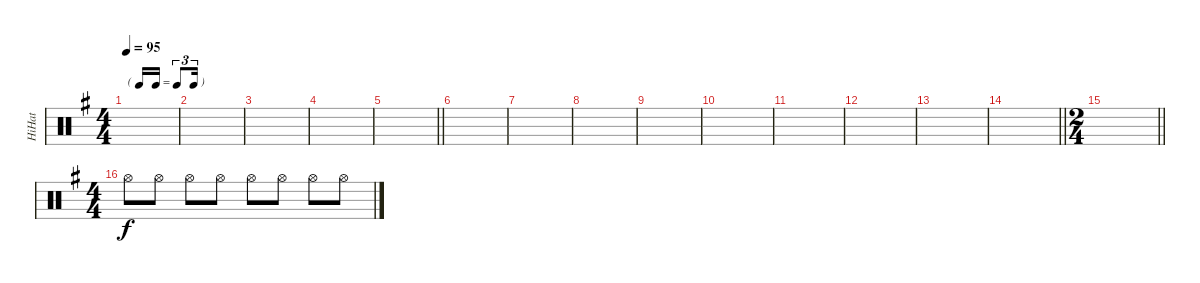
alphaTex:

\track ("HiHat" "HiHat") {instrument percussion}
\staff {score}
\articulation defaults
\ts (4 4)
\tf triplet16th
\tempo 95
\clef neutral
\ks eminor
|
|
|
|
\barLineRight lightlight
|
|
|
|
|
|
|
|
|
\barLineRight lightlight
|
\ts (2 4)
\barLineRight lightlight
|
\ts (4 4)
"Hi-Hat (open)".8 "Hi-Hat (open)".8 "Hi-Hat (open)".8 "Hi-Hat (open)".8 "Hi-Hat (open)".8 "Hi-Hat (open)".8 "Hi-Hat (open)".8 "Hi-Hat (open)".8
